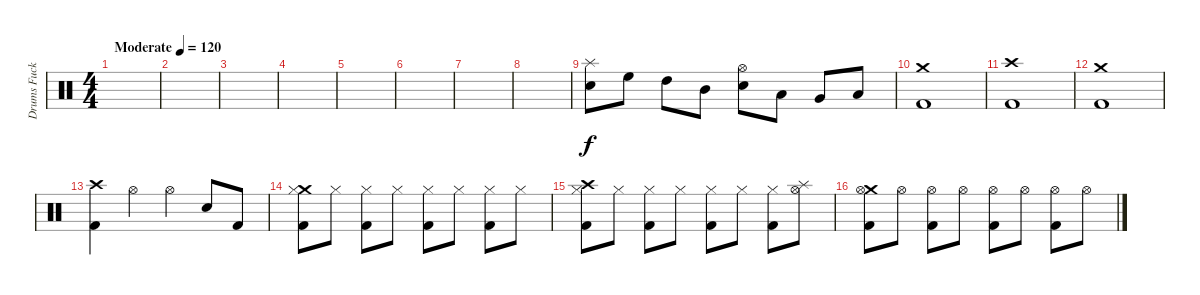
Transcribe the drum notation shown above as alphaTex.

\track ("Drums Fucker" "Drums Fuck") {instrument percussion}
\staff {score}
\articulation defaults
\ts (4 4)
\tempo (120 "Moderate")
\clef neutral
\ks c
|
|
|
|
|
|
|
|
("Splash (hit)" "Snare (hit) 2").8 "High Floor Tom (hit)".8 "High Tom (hit)".8 "Mid Tom (hit)".8 ("Hi-Hat (open)" "Snare (hit) 2").8 "Low Tom (hit)".8 "Very Low Tom (hit)".8 "Low Floor Tom (hit)".8 |
("Crash medium (hit)" "Kick (hit) 2").1 |
("Crash high (hit)" "Kick (hit) 2").1 |
("Crash medium (hit)" "Kick (hit) 2").1 |
("Crash high (hit)" "Kick (hit) 2").4 "Hi-Hat (open)".4 "Hi-Hat (open)".4 "Snare (hit) 2".8 "Kick (hit) 2".8 |
("Crash medium (hit)" "Kick (hit) 2" "Hi-Hat (closed)").8 "Hi-Hat (closed)".8 ("Kick (hit) 2" "Hi-Hat (closed)").8 "Hi-Hat (closed)".8 ("Kick (hit) 2" "Hi-Hat (closed)").8 "Hi-Hat (closed)".8 ("Kick (hit) 2" "Hi-Hat (closed)").8 "Hi-Hat (closed)".8 |
("Crash high (hit)" "Kick (hit) 2" "Hi-Hat (closed)").8 "Hi-Hat (closed)".8 ("Kick (hit) 2" "Hi-Hat (closed)").8 "Hi-Hat (closed)".8 ("Kick (hit) 2" "Hi-Hat (closed)").8 "Hi-Hat (closed)".8 ("Kick (hit) 2" "Hi-Hat (closed)").8 ("Splash (hit)" "Hi-Hat (open)").8 |
("Crash medium (hit)" "Kick (hit) 2" "Hi-Hat (open)").8 "Hi-Hat (open)".8 ("Kick (hit) 2" "Hi-Hat (open)").8 "Hi-Hat (open)".8 ("Kick (hit) 2" "Hi-Hat (open)").8 "Hi-Hat (open)".8 ("Kick (hit) 2" "Hi-Hat (open)").8 "Hi-Hat (open)".8
